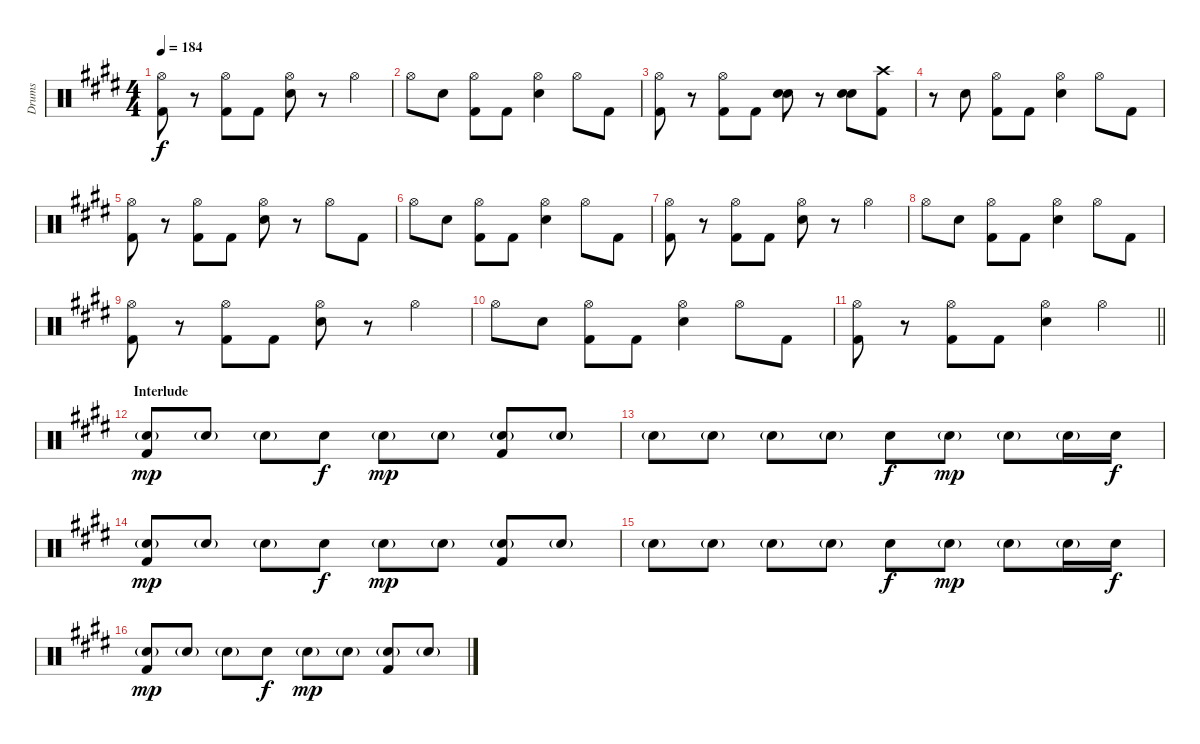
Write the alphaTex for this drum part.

\track ("Drums" "Drums") {instrument percussion}
\staff {score}
\articulation defaults
\ts (4 4)
\tempo 184
\clef neutral
\ks c#minor
("Hi-Hat (open)" "Kick (hit) 2").8{dy f} r.8 ("Hi-Hat (open)" "Kick (hit) 2").8 "Kick (hit) 2".8 ("Hi-Hat (open)" "Snare (hit) 2").8 r.8 "Hi-Hat (open)".4 |
"Hi-Hat (open)".8 "Snare (hit) 2".8 ("Hi-Hat (open)" "Kick (hit) 2").8 "Kick (hit) 2".8 ("Hi-Hat (open)" "Snare (hit) 2").4 "Hi-Hat (open)".8 "Kick (hit) 2".8 |
("Hi-Hat (open)" "Kick (hit) 2").8 r.8 ("Hi-Hat (open)" "Kick (hit) 2").8 "Kick (hit) 2".8 ("Electric Snare (hit)" "Snare (hit) 2").8 r.8 ("Electric Snare (hit)" "Snare (hit) 2").8 ("Crash high (hit)" "Kick (hit) 2").8 |
r.8 "Snare (hit) 2".8 ("Hi-Hat (open)" "Kick (hit) 2").8 "Kick (hit) 2".8 ("Hi-Hat (open)" "Snare (hit) 2").4 "Hi-Hat (open)".8 "Kick (hit) 2".8 |
("Hi-Hat (open)" "Kick (hit) 2").8 r.8 ("Hi-Hat (open)" "Kick (hit) 2").8 "Kick (hit) 2".8 ("Hi-Hat (open)" "Snare (hit) 2").8 r.8 "Hi-Hat (open)".8 "Kick (hit) 2".8 |
"Hi-Hat (open)".8 "Snare (hit) 2".8 ("Hi-Hat (open)" "Kick (hit) 2").8 "Kick (hit) 2".8 ("Hi-Hat (open)" "Snare (hit) 2").4 "Hi-Hat (open)".8 "Kick (hit) 2".8 |
("Hi-Hat (open)" "Kick (hit) 2").8 r.8 ("Hi-Hat (open)" "Kick (hit) 2").8 "Kick (hit) 2".8 ("Hi-Hat (open)" "Snare (hit) 2").8 r.8 "Hi-Hat (open)".4 |
"Hi-Hat (open)".8 "Snare (hit) 2".8 ("Hi-Hat (open)" "Kick (hit) 2").8 "Kick (hit) 2".8 ("Hi-Hat (open)" "Snare (hit) 2").4 "Hi-Hat (open)".8 "Kick (hit) 2".8 |
("Hi-Hat (open)" "Kick (hit) 2").8 r.8 ("Hi-Hat (open)" "Kick (hit) 2").8 "Kick (hit) 2".8 ("Hi-Hat (open)" "Snare (hit) 2").8 r.8 "Hi-Hat (open)".4 |
"Hi-Hat (open)".8 "Snare (hit) 2".8 ("Hi-Hat (open)" "Kick (hit) 2").8 "Kick (hit) 2".8 ("Hi-Hat (open)" "Snare (hit) 2").4 "Hi-Hat (open)".8 "Kick (hit) 2".8 |
\barLineRight lightlight
("Hi-Hat (open)" "Kick (hit) 2").8 r.8 ("Hi-Hat (open)" "Kick (hit) 2").8 "Kick (hit) 2".8 ("Hi-Hat (open)" "Snare (hit) 2").4 "Hi-Hat (open)".4 |
\section ("" "Interlude")
("Snare (hit) 2"{g} "Kick (hit) 2").8{dy mp} "Snare (hit) 2"{g}.8 "Snare (hit) 2"{g}.8 "Snare (hit) 2".8{dy f} "Snare (hit) 2"{g}.8{dy mp} "Snare (hit) 2"{g}.8 ("Snare (hit) 2"{g} "Kick (hit) 2").8 "Snare (hit) 2"{g}.8 |
"Snare (hit) 2"{g}.8 "Snare (hit) 2"{g}.8 "Snare (hit) 2"{g}.8 "Snare (hit) 2"{g}.8 "Snare (hit) 2".8{dy f} "Snare (hit) 2"{g}.8{dy mp} "Snare (hit) 2"{g}.8 "Snare (hit) 2"{g}.16 "Snare (hit) 2".16{dy f} |
("Snare (hit) 2"{g} "Kick (hit) 2").8{dy mp} "Snare (hit) 2"{g}.8 "Snare (hit) 2"{g}.8 "Snare (hit) 2".8{dy f} "Snare (hit) 2"{g}.8{dy mp} "Snare (hit) 2"{g}.8 ("Snare (hit) 2"{g} "Kick (hit) 2").8 "Snare (hit) 2"{g}.8 |
"Snare (hit) 2"{g}.8 "Snare (hit) 2"{g}.8 "Snare (hit) 2"{g}.8 "Snare (hit) 2"{g}.8 "Snare (hit) 2".8{dy f} "Snare (hit) 2"{g}.8{dy mp} "Snare (hit) 2"{g}.8 "Snare (hit) 2"{g}.16 "Snare (hit) 2".16{dy f} |
("Snare (hit) 2"{g} "Kick (hit) 2").8{dy mp} "Snare (hit) 2"{g}.8 "Snare (hit) 2"{g}.8 "Snare (hit) 2".8{dy f} "Snare (hit) 2"{g}.8{dy mp} "Snare (hit) 2"{g}.8 ("Snare (hit) 2"{g} "Kick (hit) 2").8 "Snare (hit) 2"{g}.8
